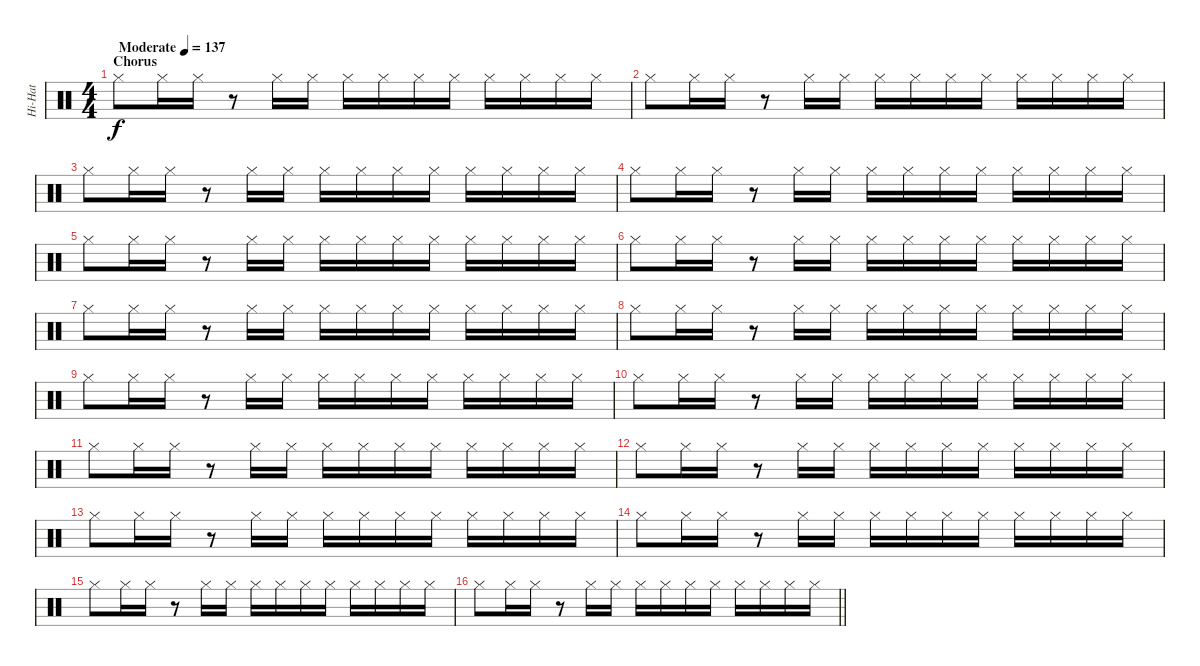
\track ("Hi-Hat" "Hi-Hat") {instrument percussion}
\staff {score}
\articulation defaults
\ts (4 4)
\section ("" "Chorus")
\tempo (137 "Moderate")
\clef neutral
\ks c "Hi-Hat (closed)".8{dy f} "Hi-Hat (closed)".16 "Hi-Hat (closed)".16
r.8 "Hi-Hat (closed)".16 "Hi-Hat (closed)".16 "Hi-Hat (closed)".16 "Hi-Hat (closed)".16 "Hi-Hat (closed)".16 "Hi-Hat (closed)".16 "Hi-Hat (closed)".16 "Hi-Hat (closed)".16 "Hi-Hat (closed)".16 "Hi-Hat (closed)".16 |
"Hi-Hat (closed)".8 "Hi-Hat (closed)".16 "Hi-Hat (closed)".16 r.8 "Hi-Hat (closed)".16 "Hi-Hat (closed)".16 "Hi-Hat (closed)".16 "Hi-Hat (closed)".16 "Hi-Hat (closed)".16 "Hi-Hat (closed)".16 "Hi-Hat (closed)".16 "Hi-Hat (closed)".16 "Hi-Hat (closed)".16 "Hi-Hat (closed)".16 |
"Hi-Hat (closed)".8 "Hi-Hat (closed)".16 "Hi-Hat (closed)".16 r.8 "Hi-Hat (closed)".16 "Hi-Hat (closed)".16 "Hi-Hat (closed)".16 "Hi-Hat (closed)".16 "Hi-Hat (closed)".16 "Hi-Hat (closed)".16 "Hi-Hat (closed)".16 "Hi-Hat (closed)".16 "Hi-Hat (closed)".16 "Hi-Hat (closed)".16 |
"Hi-Hat (closed)".8 "Hi-Hat (closed)".16 "Hi-Hat (closed)".16 r.8 "Hi-Hat (closed)".16 "Hi-Hat (closed)".16 "Hi-Hat (closed)".16 "Hi-Hat (closed)".16 "Hi-Hat (closed)".16 "Hi-Hat (closed)".16 "Hi-Hat (closed)".16 "Hi-Hat (closed)".16 "Hi-Hat (closed)".16 "Hi-Hat (closed)".16 |
"Hi-Hat (closed)".8 "Hi-Hat (closed)".16 "Hi-Hat (closed)".16 r.8 "Hi-Hat (closed)".16 "Hi-Hat (closed)".16 "Hi-Hat (closed)".16 "Hi-Hat (closed)".16 "Hi-Hat (closed)".16 "Hi-Hat (closed)".16 "Hi-Hat (closed)".16 "Hi-Hat (closed)".16 "Hi-Hat (closed)".16 "Hi-Hat (closed)".16 |
"Hi-Hat (closed)".8 "Hi-Hat (closed)".16 "Hi-Hat (closed)".16 r.8 "Hi-Hat (closed)".16 "Hi-Hat (closed)".16 "Hi-Hat (closed)".16 "Hi-Hat (closed)".16 "Hi-Hat (closed)".16 "Hi-Hat (closed)".16 "Hi-Hat (closed)".16 "Hi-Hat (closed)".16 "Hi-Hat (closed)".16 "Hi-Hat (closed)".16 |
"Hi-Hat (closed)".8 "Hi-Hat (closed)".16 "Hi-Hat (closed)".16 r.8 "Hi-Hat (closed)".16 "Hi-Hat (closed)".16 "Hi-Hat (closed)".16 "Hi-Hat (closed)".16 "Hi-Hat (closed)".16 "Hi-Hat (closed)".16 "Hi-Hat (closed)".16 "Hi-Hat (closed)".16 "Hi-Hat (closed)".16 "Hi-Hat (closed)".16 |
"Hi-Hat (closed)".8 "Hi-Hat (closed)".16 "Hi-Hat (closed)".16 r.8 "Hi-Hat (closed)".16 "Hi-Hat (closed)".16 "Hi-Hat (closed)".16 "Hi-Hat (closed)".16 "Hi-Hat (closed)".16 "Hi-Hat (closed)".16 "Hi-Hat (closed)".16 "Hi-Hat (closed)".16 "Hi-Hat (closed)".16 "Hi-Hat (closed)".16 |
"Hi-Hat (closed)".8 "Hi-Hat (closed)".16 "Hi-Hat (closed)".16 r.8 "Hi-Hat (closed)".16 "Hi-Hat (closed)".16 "Hi-Hat (closed)".16 "Hi-Hat (closed)".16 "Hi-Hat (closed)".16 "Hi-Hat (closed)".16 "Hi-Hat (closed)".16 "Hi-Hat (closed)".16 "Hi-Hat (closed)".16 "Hi-Hat (closed)".16 |
"Hi-Hat (closed)".8 "Hi-Hat (closed)".16 "Hi-Hat (closed)".16 r.8 "Hi-Hat (closed)".16 "Hi-Hat (closed)".16 "Hi-Hat (closed)".16 "Hi-Hat (closed)".16 "Hi-Hat (closed)".16 "Hi-Hat (closed)".16 "Hi-Hat (closed)".16 "Hi-Hat (closed)".16 "Hi-Hat (closed)".16 "Hi-Hat (closed)".16 |
"Hi-Hat (closed)".8 "Hi-Hat (closed)".16 "Hi-Hat (closed)".16 r.8 "Hi-Hat (closed)".16 "Hi-Hat (closed)".16 "Hi-Hat (closed)".16 "Hi-Hat (closed)".16 "Hi-Hat (closed)".16 "Hi-Hat (closed)".16 "Hi-Hat (closed)".16 "Hi-Hat (closed)".16 "Hi-Hat (closed)".16 "Hi-Hat (closed)".16 |
"Hi-Hat (closed)".8 "Hi-Hat (closed)".16 "Hi-Hat (closed)".16 r.8 "Hi-Hat (closed)".16 "Hi-Hat (closed)".16 "Hi-Hat (closed)".16 "Hi-Hat (closed)".16 "Hi-Hat (closed)".16 "Hi-Hat (closed)".16 "Hi-Hat (closed)".16 "Hi-Hat (closed)".16 "Hi-Hat (closed)".16 "Hi-Hat (closed)".16 |
"Hi-Hat (closed)".8 "Hi-Hat (closed)".16 "Hi-Hat (closed)".16 r.8 "Hi-Hat (closed)".16 "Hi-Hat (closed)".16 "Hi-Hat (closed)".16 "Hi-Hat (closed)".16 "Hi-Hat (closed)".16 "Hi-Hat (closed)".16 "Hi-Hat (closed)".16 "Hi-Hat (closed)".16 "Hi-Hat (closed)".16 "Hi-Hat (closed)".16 |
"Hi-Hat (closed)".8 "Hi-Hat (closed)".16 "Hi-Hat (closed)".16 r.8 "Hi-Hat (closed)".16 "Hi-Hat (closed)".16 "Hi-Hat (closed)".16 "Hi-Hat (closed)".16 "Hi-Hat (closed)".16 "Hi-Hat (closed)".16 "Hi-Hat (closed)".16 "Hi-Hat (closed)".16 "Hi-Hat (closed)".16 "Hi-Hat (closed)".16 |
"Hi-Hat (closed)".8 "Hi-Hat (closed)".16 "Hi-Hat (closed)".16 r.8 "Hi-Hat (closed)".16 "Hi-Hat (closed)".16 "Hi-Hat (closed)".16 "Hi-Hat (closed)".16 "Hi-Hat (closed)".16 "Hi-Hat (closed)".16 "Hi-Hat (closed)".16 "Hi-Hat (closed)".16 "Hi-Hat (closed)".16 "Hi-Hat (closed)".16 |
\barLineRight lightlight "Hi-Hat (closed)".8 "Hi-Hat (closed)".16 "Hi-Hat (closed)".16
r.8 "Hi-Hat (closed)".16 "Hi-Hat (closed)".16 "Hi-Hat (closed)".16 "Hi-Hat (closed)".16 "Hi-Hat (closed)".16 "Hi-Hat (closed)".16 "Hi-Hat (closed)".16 "Hi-Hat (closed)".16 "Hi-Hat (closed)".16 "Hi-Hat (closed)".16
